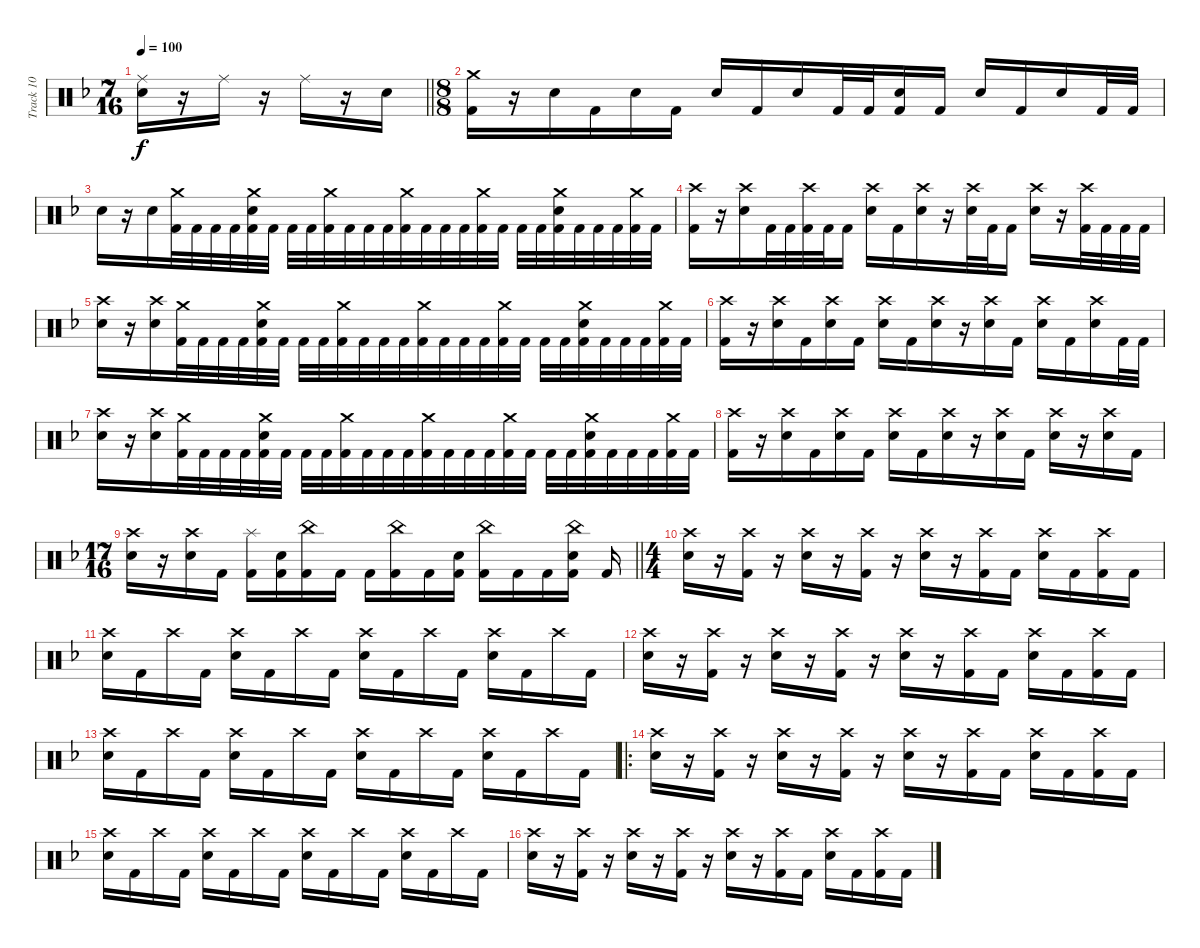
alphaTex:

\track ("Track 10" "Track 10") {instrument percussion}
\staff {score}
\articulation defaults
\ts (7 16)
\tempo 100
\clef neutral
\barLineRight lightlight
\ks f
("Snare (hit) 2" "Ride (middle)").16{dy f} r.16 "Ride (middle)".16 r.16 "Ride (middle)".16 r.16 "Snare (hit) 2".16 |
\ts (8 8)
("Kick (hit) 2" "Crash medium (hit)").16 r.16 "Snare (hit) 2".16 "Kick (hit) 2".16 "Snare (hit) 2".16 "Kick (hit) 2".16 "Snare (hit) 2".16 "Kick (hit) 2".16 "Snare (hit) 2".16 "Kick (hit) 2".32 "Kick (hit) 2".32 ("Kick (hit) 2" "Snare (hit) 2").16 "Kick (hit) 2".16 "Snare (hit) 2".16 "Kick (hit) 2".16 "Snare (hit) 2".16 "Kick (hit) 2".32 "Kick (hit) 2".32 |
"Snare (hit) 2".16 r.16 "Snare (hit) 2".16 ("Kick (hit) 2" "Crash medium (hit)").32 "Kick (hit) 2".32 "Kick (hit) 2".32 "Kick (hit) 2".32 ("Kick (hit) 2" "Snare (hit) 2" "Crash medium (hit)").32 "Kick (hit) 2".32 "Kick (hit) 2".32 "Kick (hit) 2".32 ("Kick (hit) 2" "Crash medium (hit)").32 "Kick (hit) 2".32 "Kick (hit) 2".32 "Kick (hit) 2".32 ("Kick (hit) 2" "Crash medium (hit)").32 "Kick (hit) 2".32 "Kick (hit) 2".32 "Kick (hit) 2".32 ("Kick (hit) 2" "Crash medium (hit)").32 "Kick (hit) 2".32 "Kick (hit) 2".32 "Kick (hit) 2".32 ("Kick (hit) 2" "Snare (hit) 2" "Crash medium (hit)").32 "Kick (hit) 2".32 "Kick (hit) 2".32 "Kick (hit) 2".32 ("Kick (hit) 2" "Crash medium (hit)").32 "Kick (hit) 2".32 |
("Kick (hit) 2" "Crash high (hit)").16 r.16 ("Snare (hit) 2" "Crash high (hit)").16 "Kick (hit) 2".32 "Kick (hit) 2".32 ("Kick (hit) 2" "Crash high (hit)").32 "Kick (hit) 2".32 "Kick (hit) 2".16 ("Snare (hit) 2" "Crash high (hit)").16 "Kick (hit) 2".16 ("Snare (hit) 2" "Crash high (hit)").16 r.16 ("Snare (hit) 2" "Crash high (hit)").32 "Kick (hit) 2".32 "Kick (hit) 2".16 ("Snare (hit) 2" "Crash high (hit)").16 r.16 ("Kick (hit) 2" "Crash high (hit)").32 "Kick (hit) 2".32 "Kick (hit) 2".32 "Kick (hit) 2".32 |
("Snare (hit) 2" "Crash high (hit)").16 r.16 ("Snare (hit) 2" "Crash high (hit)").16 ("Kick (hit) 2" "Crash medium (hit)").32 "Kick (hit) 2".32 "Kick (hit) 2".32 "Kick (hit) 2".32 ("Kick (hit) 2" "Snare (hit) 2" "Crash medium (hit)").32 "Kick (hit) 2".32 "Kick (hit) 2".32 "Kick (hit) 2".32 ("Kick (hit) 2" "Crash medium (hit)").32 "Kick (hit) 2".32 "Kick (hit) 2".32 "Kick (hit) 2".32 ("Kick (hit) 2" "Crash medium (hit)").32 "Kick (hit) 2".32 "Kick (hit) 2".32 "Kick (hit) 2".32 ("Kick (hit) 2" "Crash medium (hit)").32 "Kick (hit) 2".32 "Kick (hit) 2".32 "Kick (hit) 2".32 ("Kick (hit) 2" "Snare (hit) 2" "Crash medium (hit)").32 "Kick (hit) 2".32 "Kick (hit) 2".32 "Kick (hit) 2".32 ("Kick (hit) 2" "Crash medium (hit)").32 "Kick (hit) 2".32 |
("Kick (hit) 2" "Crash high (hit)").16 r.16 ("Snare (hit) 2" "Crash high (hit)").16 "Kick (hit) 2".16 ("Snare (hit) 2" "Crash high (hit)").16 "Kick (hit) 2".16 ("Snare (hit) 2" "Crash high (hit)").16 "Kick (hit) 2".16 ("Snare (hit) 2" "Crash high (hit)").16 r.16 ("Snare (hit) 2" "Crash high (hit)").16 "Kick (hit) 2".16 ("Snare (hit) 2" "Crash high (hit)").16 "Kick (hit) 2".16 ("Snare (hit) 2" "Crash high (hit)").16 "Kick (hit) 2".32 "Kick (hit) 2".32 |
("Snare (hit) 2" "Crash high (hit)").16 r.16 ("Snare (hit) 2" "Crash high (hit)").16 ("Kick (hit) 2" "Crash medium (hit)").32 "Kick (hit) 2".32 "Kick (hit) 2".32 "Kick (hit) 2".32 ("Kick (hit) 2" "Snare (hit) 2" "Crash medium (hit)").32 "Kick (hit) 2".32 "Kick (hit) 2".32 "Kick (hit) 2".32 ("Kick (hit) 2" "Crash medium (hit)").32 "Kick (hit) 2".32 "Kick (hit) 2".32 "Kick (hit) 2".32 ("Kick (hit) 2" "Crash medium (hit)").32 "Kick (hit) 2".32 "Kick (hit) 2".32 "Kick (hit) 2".32 ("Kick (hit) 2" "Crash medium (hit)").32 "Kick (hit) 2".32 "Kick (hit) 2".32 "Kick (hit) 2".32 ("Kick (hit) 2" "Snare (hit) 2" "Crash medium (hit)").32 "Kick (hit) 2".32 "Kick (hit) 2".32 "Kick (hit) 2".32 ("Kick (hit) 2" "Crash medium (hit)").32 "Kick (hit) 2".32 |
("Kick (hit) 2" "Crash high (hit)").16 r.16 ("Snare (hit) 2" "Crash high (hit)").16 "Kick (hit) 2".16 ("Snare (hit) 2" "Crash high (hit)").16 "Kick (hit) 2".16 ("Snare (hit) 2" "Crash high (hit)").16 "Kick (hit) 2".16 ("Snare (hit) 2" "Crash high (hit)").16 r.16 ("Snare (hit) 2" "Crash high (hit)").16 "Kick (hit) 2".16 ("Snare (hit) 2" "Crash high (hit)").16 r.16 ("Snare (hit) 2" "Crash high (hit)").16 "Kick (hit) 2".16 |
\ts (17 16)
\barLineRight lightlight
("Snare (hit) 2" "Crash high (hit)").16 r.16 ("Snare (hit) 2" "Crash high (hit)").16 "Kick (hit) 2".16 ("Kick (hit) 2" "Splash (hit)").16 ("Kick (hit) 2" "Snare (hit) 2").16 ("Kick (hit) 2" "China (hit)").16 "Kick (hit) 2".16 "Kick (hit) 2".16 ("Kick (hit) 2" "China (hit)").16 "Kick (hit) 2".16 ("Kick (hit) 2" "Snare (hit) 2").16 ("Kick (hit) 2" "China (hit)").16 "Kick (hit) 2".16 "Kick (hit) 2".16 ("Kick (hit) 2" "Snare (hit) 2" "China (hit)").16 "Kick (hit) 2".16 |
\ts (4 4)
("Snare (hit) 2" "Crash high (hit)").16 r.16 ("Kick (hit) 2" "Crash high (hit)").16 r.16 ("Snare (hit) 2" "Crash high (hit)").16 r.16 ("Kick (hit) 2" "Crash high (hit)").16 r.16 ("Snare (hit) 2" "Crash high (hit)").16 r.16 ("Kick (hit) 2" "Crash high (hit)").16 "Kick (hit) 2".16 ("Snare (hit) 2" "Crash high (hit)").16 "Kick (hit) 2".16 ("Kick (hit) 2" "Crash high (hit)").16 "Kick (hit) 2".16 |
("Snare (hit) 2" "Crash high (hit)").16 "Kick (hit) 2".16 "Crash high (hit)".16 "Kick (hit) 2".16 ("Snare (hit) 2" "Crash high (hit)").16 "Kick (hit) 2".16 "Crash high (hit)".16 "Kick (hit) 2".16 ("Snare (hit) 2" "Crash high (hit)").16 "Kick (hit) 2".16 "Crash high (hit)".16 "Kick (hit) 2".16 ("Snare (hit) 2" "Crash high (hit)").16 "Kick (hit) 2".16 "Crash high (hit)".16 "Kick (hit) 2".16 |
("Snare (hit) 2" "Crash high (hit)").16 r.16 ("Kick (hit) 2" "Crash high (hit)").16 r.16 ("Snare (hit) 2" "Crash high (hit)").16 r.16 ("Kick (hit) 2" "Crash high (hit)").16 r.16 ("Snare (hit) 2" "Crash high (hit)").16 r.16 ("Kick (hit) 2" "Crash high (hit)").16 "Kick (hit) 2".16 ("Snare (hit) 2" "Crash high (hit)").16 "Kick (hit) 2".16 ("Kick (hit) 2" "Crash high (hit)").16 "Kick (hit) 2".16 |
("Snare (hit) 2" "Crash high (hit)").16 "Kick (hit) 2".16 "Crash high (hit)".16 "Kick (hit) 2".16 ("Snare (hit) 2" "Crash high (hit)").16 "Kick (hit) 2".16 "Crash high (hit)".16 "Kick (hit) 2".16 ("Snare (hit) 2" "Crash high (hit)").16 "Kick (hit) 2".16 "Crash high (hit)".16 "Kick (hit) 2".16 ("Snare (hit) 2" "Crash high (hit)").16 "Kick (hit) 2".16 "Crash high (hit)".16 "Kick (hit) 2".16 |
\ro
("Snare (hit) 2" "Crash high (hit)").16 r.16 ("Kick (hit) 2" "Crash high (hit)").16 r.16 ("Snare (hit) 2" "Crash high (hit)").16 r.16 ("Kick (hit) 2" "Crash high (hit)").16 r.16 ("Snare (hit) 2" "Crash high (hit)").16 r.16 ("Kick (hit) 2" "Crash high (hit)").16 "Kick (hit) 2".16 ("Snare (hit) 2" "Crash high (hit)").16 "Kick (hit) 2".16 ("Kick (hit) 2" "Crash high (hit)").16 "Kick (hit) 2".16 |
("Snare (hit) 2" "Crash high (hit)").16 "Kick (hit) 2".16 "Crash high (hit)".16 "Kick (hit) 2".16 ("Snare (hit) 2" "Crash high (hit)").16 "Kick (hit) 2".16 "Crash high (hit)".16 "Kick (hit) 2".16 ("Snare (hit) 2" "Crash high (hit)").16 "Kick (hit) 2".16 "Crash high (hit)".16 "Kick (hit) 2".16 ("Snare (hit) 2" "Crash high (hit)").16 "Kick (hit) 2".16 "Crash high (hit)".16 "Kick (hit) 2".16 |
("Snare (hit) 2" "Crash high (hit)").16 r.16 ("Kick (hit) 2" "Crash high (hit)").16 r.16 ("Snare (hit) 2" "Crash high (hit)").16 r.16 ("Kick (hit) 2" "Crash high (hit)").16 r.16 ("Snare (hit) 2" "Crash high (hit)").16 r.16 ("Kick (hit) 2" "Crash high (hit)").16 "Kick (hit) 2".16 ("Snare (hit) 2" "Crash high (hit)").16 "Kick (hit) 2".16 ("Kick (hit) 2" "Crash high (hit)").16 "Kick (hit) 2".16
